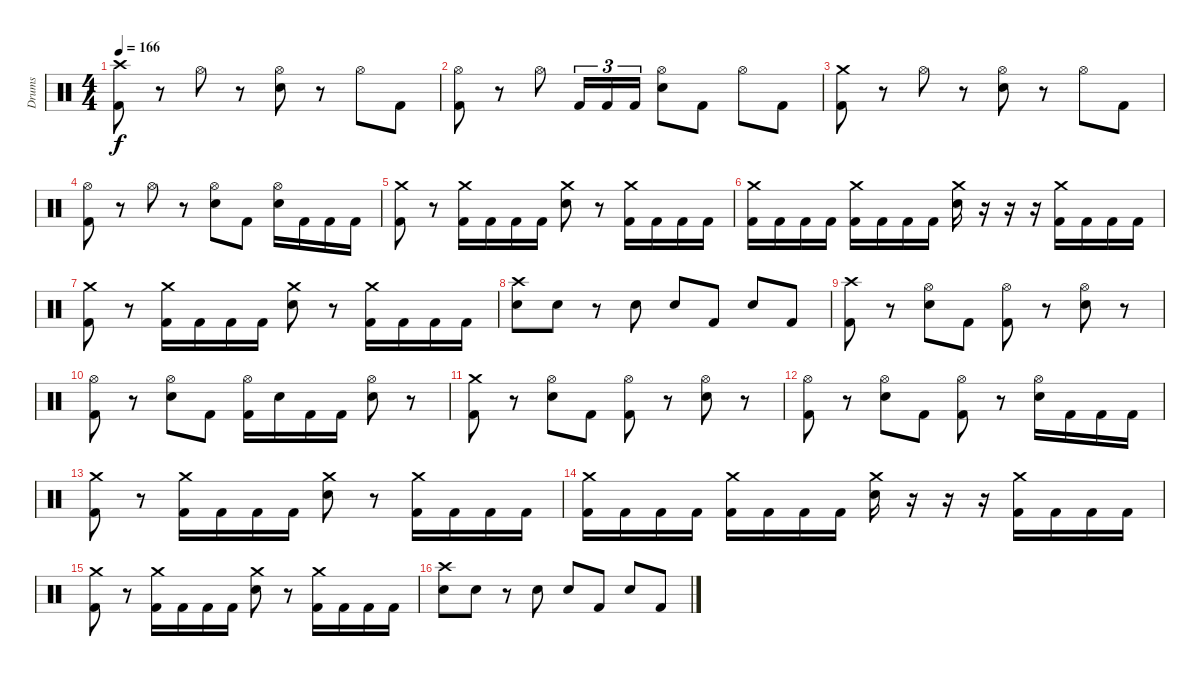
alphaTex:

\track ("Drums" "Drums") {instrument percussion}
\staff {score}
\articulation defaults
\ts (4 4)
\tempo 166
\clef neutral
\ks c
("Crash high (hit)" "Kick (hit) 2").8{dy f} r.8 "Hi-Hat (open)".8 r.8 ("Hi-Hat (open)" "Snare (hit) 2").8 r.8 "Hi-Hat (open)".8 "Kick (hit) 2".8 |
("Hi-Hat (open)" "Kick (hit) 2").8 r.8 "Hi-Hat (open)".8 "Kick (hit) 2".16{tu (3 2)} "Kick (hit) 2".16{tu (3 2)} "Kick (hit) 2".16{tu (3 2)} ("Hi-Hat (open)" "Snare (hit) 2").8 "Kick (hit) 2".8 "Hi-Hat (open)".8 "Kick (hit) 2".8 |
("Crash medium (hit)" "Kick (hit) 2").8 r.8 "Hi-Hat (open)".8 r.8 ("Hi-Hat (open)" "Snare (hit) 2").8 r.8 "Hi-Hat (open)".8 "Kick (hit) 2".8 |
("Hi-Hat (open)" "Kick (hit) 2").8 r.8 "Hi-Hat (open)".8 r.8 ("Hi-Hat (open)" "Snare (hit) 2").8 "Kick (hit) 2".8 ("Hi-Hat (open)" "Snare (hit) 2").16 "Kick (hit) 2".16 "Kick (hit) 2".16 "Kick (hit) 2".16 |
("Crash medium (hit)" "Kick (hit) 2").8 r.8 ("Crash medium (hit)" "Kick (hit) 2").16 "Kick (hit) 2".16 "Kick (hit) 2".16 "Kick (hit) 2".16 ("Crash medium (hit)" "Snare (hit) 2").8 r.8 ("Crash medium (hit)" "Kick (hit) 2").16 "Kick (hit) 2".16 "Kick (hit) 2".16 "Kick (hit) 2".16 |
("Crash medium (hit)" "Kick (hit) 2").16 "Kick (hit) 2".16 "Kick (hit) 2".16 "Kick (hit) 2".16 ("Crash medium (hit)" "Kick (hit) 2").16 "Kick (hit) 2".16 "Kick (hit) 2".16 "Kick (hit) 2".16 ("Crash medium (hit)" "Snare (hit) 2").16 r.16 r.16 r.16 ("Crash medium (hit)" "Kick (hit) 2").16 "Kick (hit) 2".16 "Kick (hit) 2".16 "Kick (hit) 2".16 |
("Crash medium (hit)" "Kick (hit) 2").8 r.8 ("Crash medium (hit)" "Kick (hit) 2").16 "Kick (hit) 2".16 "Kick (hit) 2".16 "Kick (hit) 2".16 ("Crash medium (hit)" "Snare (hit) 2").8 r.8 ("Crash medium (hit)" "Kick (hit) 2").16 "Kick (hit) 2".16 "Kick (hit) 2".16 "Kick (hit) 2".16 |
("Crash high (hit)" "Snare (hit) 2").8 "Snare (hit) 2".8 r.8 "Snare (hit) 2".8 "Snare (hit) 2".8 "Kick (hit) 2".8 "Snare (hit) 2".8 "Kick (hit) 2".8 |
("Crash high (hit)" "Kick (hit) 2").8 r.8 ("Hi-Hat (open)" "Snare (hit) 2").8 "Kick (hit) 2".8 ("Hi-Hat (open)" "Kick (hit) 2").8 r.8 ("Hi-Hat (open)" "Snare (hit) 2").8 r.8 |
("Hi-Hat (open)" "Kick (hit) 2").8 r.8 ("Hi-Hat (open)" "Snare (hit) 2").8 "Kick (hit) 2".8 ("Hi-Hat (open)" "Kick (hit) 2").16 "Snare (hit) 2".16 "Kick (hit) 2".16 "Kick (hit) 2".16 ("Hi-Hat (open)" "Snare (hit) 2").8 r.8 |
("Crash medium (hit)" "Kick (hit) 2").8 r.8 ("Hi-Hat (open)" "Snare (hit) 2").8 "Kick (hit) 2".8 ("Hi-Hat (open)" "Kick (hit) 2").8 r.8 ("Hi-Hat (open)" "Snare (hit) 2").8 r.8 |
("Hi-Hat (open)" "Kick (hit) 2").8 r.8 ("Hi-Hat (open)" "Snare (hit) 2").8 "Kick (hit) 2".8 ("Hi-Hat (open)" "Kick (hit) 2").8 r.8 ("Hi-Hat (open)" "Snare (hit) 2").16 "Kick (hit) 2".16 "Kick (hit) 2".16 "Kick (hit) 2".16 |
("Crash medium (hit)" "Kick (hit) 2").8 r.8 ("Crash medium (hit)" "Kick (hit) 2").16 "Kick (hit) 2".16 "Kick (hit) 2".16 "Kick (hit) 2".16 ("Crash medium (hit)" "Snare (hit) 2").8 r.8 ("Crash medium (hit)" "Kick (hit) 2").16 "Kick (hit) 2".16 "Kick (hit) 2".16 "Kick (hit) 2".16 |
("Crash medium (hit)" "Kick (hit) 2").16 "Kick (hit) 2".16 "Kick (hit) 2".16 "Kick (hit) 2".16 ("Crash medium (hit)" "Kick (hit) 2").16 "Kick (hit) 2".16 "Kick (hit) 2".16 "Kick (hit) 2".16 ("Crash medium (hit)" "Snare (hit) 2").16 r.16 r.16 r.16 ("Crash medium (hit)" "Kick (hit) 2").16 "Kick (hit) 2".16 "Kick (hit) 2".16 "Kick (hit) 2".16 |
("Crash medium (hit)" "Kick (hit) 2").8 r.8 ("Crash medium (hit)" "Kick (hit) 2").16 "Kick (hit) 2".16 "Kick (hit) 2".16 "Kick (hit) 2".16 ("Crash medium (hit)" "Snare (hit) 2").8 r.8 ("Crash medium (hit)" "Kick (hit) 2").16 "Kick (hit) 2".16 "Kick (hit) 2".16 "Kick (hit) 2".16 |
("Crash high (hit)" "Snare (hit) 2").8 "Snare (hit) 2".8 r.8 "Snare (hit) 2".8 "Snare (hit) 2".8 "Kick (hit) 2".8 "Snare (hit) 2".8 "Kick (hit) 2".8
